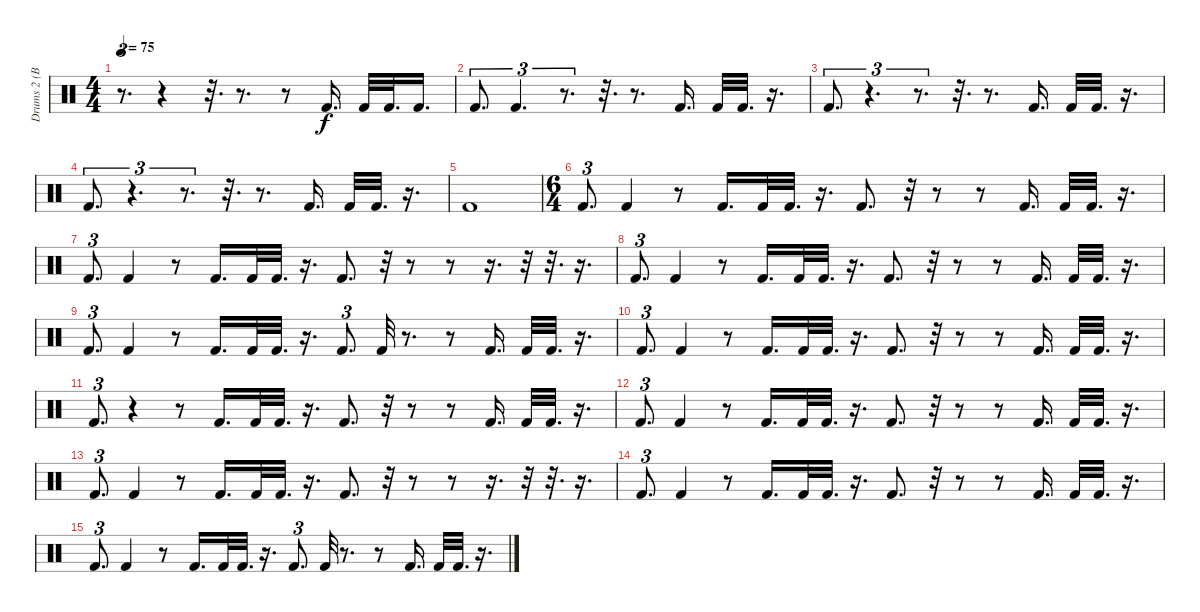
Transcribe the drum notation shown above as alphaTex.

\track ("Drums 2 (Bass Drum)" "Drums 2 (B") {instrument percussion}
\staff {score}
\articulation defaults
\ts (4 4)
\tempo 75
\clef neutral
\ks c
r.8{d tu (3 2) dy f} r.4 r.32{d} r.8{d} r.8 "Kick (hit) 2".16{d} "Kick (hit) 2".32 "Kick (hit) 2".32{d} "Kick (hit) 2".16{d} |
"Kick (hit) 2".8{d tu (3 2)} "Kick (hit) 2".4{d tu (3 2)} r.8{d tu (3 2)} r.32{d} r.8{d} "Kick (hit) 2".16{d} "Kick (hit) 2".32 "Kick (hit) 2".32{d} r.16{d} |
"Kick (hit) 2".8{d tu (3 2)} r.4{d tu (3 2)} r.8{d tu (3 2)} r.32{d} r.8{d} "Kick (hit) 2".16{d} "Kick (hit) 2".32 "Kick (hit) 2".32{d} r.16{d} |
"Kick (hit) 2".8{d tu (3 2)} r.4{d tu (3 2)} r.8{d tu (3 2)} r.32{d} r.8{d} "Kick (hit) 2".16{d} "Kick (hit) 2".32 "Kick (hit) 2".32{d} r.16{d} |
"Kick (hit) 2".1 |
\ts (6 4)
"Kick (hit) 2".8{d tu (3 2)} "Kick (hit) 2".4 r.8 "Kick (hit) 2".16{d} "Kick (hit) 2".32 "Kick (hit) 2".32{d} r.16{d} "Kick (hit) 2".8{d} r.32 r.8 r.8 "Kick (hit) 2".16{d} "Kick (hit) 2".32 "Kick (hit) 2".32{d} r.16{d} |
"Kick (hit) 2".8{d tu (3 2)} "Kick (hit) 2".4 r.8 "Kick (hit) 2".16{d} "Kick (hit) 2".32 "Kick (hit) 2".32{d} r.16{d} "Kick (hit) 2".8{d} r.32 r.8 r.8 r.16{d} r.32 r.32{d} r.16{d} |
"Kick (hit) 2".8{d tu (3 2)} "Kick (hit) 2".4 r.8 "Kick (hit) 2".16{d} "Kick (hit) 2".32 "Kick (hit) 2".32{d} r.16{d} "Kick (hit) 2".8{d} r.32 r.8 r.8 "Kick (hit) 2".16{d} "Kick (hit) 2".32 "Kick (hit) 2".32{d} r.16{d} |
"Kick (hit) 2".8{d tu (3 2)} "Kick (hit) 2".4 r.8 "Kick (hit) 2".16{d} "Kick (hit) 2".32 "Kick (hit) 2".32{d} r.16{d} "Kick (hit) 2".8{d tu (3 2)} "Kick (hit) 2".32 r.8{d} r.8 "Kick (hit) 2".16{d} "Kick (hit) 2".32 "Kick (hit) 2".32{d} r.16{d} |
"Kick (hit) 2".8{d tu (3 2)} "Kick (hit) 2".4 r.8 "Kick (hit) 2".16{d} "Kick (hit) 2".32 "Kick (hit) 2".32{d} r.16{d} "Kick (hit) 2".8{d} r.32 r.8 r.8 "Kick (hit) 2".16{d} "Kick (hit) 2".32 "Kick (hit) 2".32{d} r.16{d} |
"Kick (hit) 2".8{d tu (3 2)} r.4 r.8 "Kick (hit) 2".16{d} "Kick (hit) 2".32 "Kick (hit) 2".32{d} r.16{d} "Kick (hit) 2".8{d} r.32 r.8 r.8 "Kick (hit) 2".16{d} "Kick (hit) 2".32 "Kick (hit) 2".32{d} r.16{d} |
"Kick (hit) 2".8{d tu (3 2)} "Kick (hit) 2".4 r.8 "Kick (hit) 2".16{d} "Kick (hit) 2".32 "Kick (hit) 2".32{d} r.16{d} "Kick (hit) 2".8{d} r.32 r.8 r.8 "Kick (hit) 2".16{d} "Kick (hit) 2".32 "Kick (hit) 2".32{d} r.16{d} |
"Kick (hit) 2".8{d tu (3 2)} "Kick (hit) 2".4 r.8 "Kick (hit) 2".16{d} "Kick (hit) 2".32 "Kick (hit) 2".32{d} r.16{d} "Kick (hit) 2".8{d} r.32 r.8 r.8 r.16{d} r.32 r.32{d} r.16{d} |
"Kick (hit) 2".8{d tu (3 2)} "Kick (hit) 2".4 r.8 "Kick (hit) 2".16{d} "Kick (hit) 2".32 "Kick (hit) 2".32{d} r.16{d} "Kick (hit) 2".8{d} r.32 r.8 r.8 "Kick (hit) 2".16{d} "Kick (hit) 2".32 "Kick (hit) 2".32{d} r.16{d} |
"Kick (hit) 2".8{d tu (3 2)} "Kick (hit) 2".4 r.8 "Kick (hit) 2".16{d} "Kick (hit) 2".32 "Kick (hit) 2".32{d} r.16{d} "Kick (hit) 2".8{d tu (3 2)} "Kick (hit) 2".32 r.8{d} r.8 "Kick (hit) 2".16{d} "Kick (hit) 2".32 "Kick (hit) 2".32{d} r.16{d}
